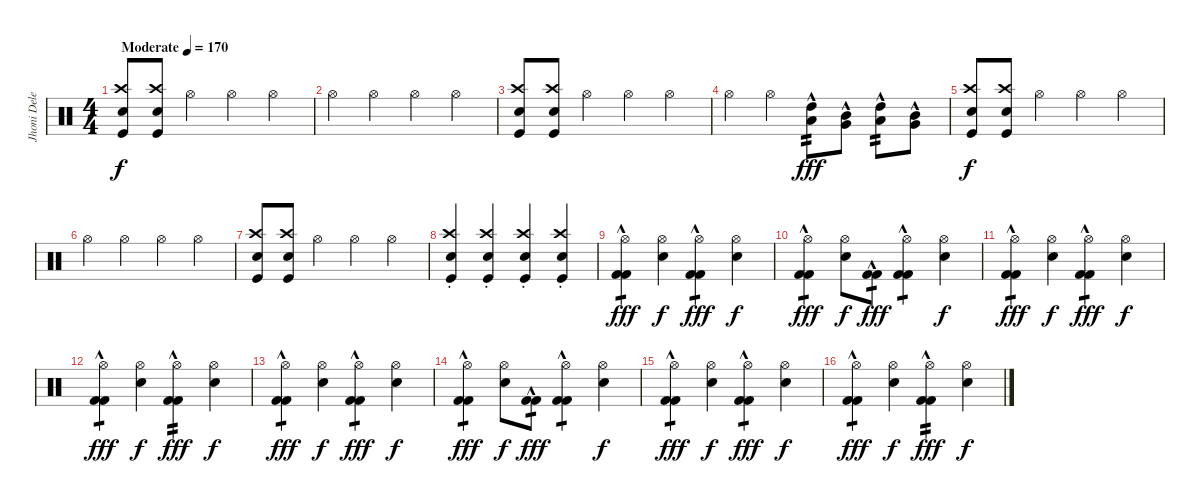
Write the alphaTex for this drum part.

\track ("Jhoni Delenger" "Jhoni Dele") {instrument percussion}
\staff {score}
\articulation defaults
\ts (4 4)
\tempo (170 "Moderate")
\clef neutral
\ks c
("Snare (hit) 2" "Crash high (hit)" "Kick (hit)").8{dy f} ("Snare (hit) 2" "Crash high (hit)" "Kick (hit)").8 "Hi-Hat (open)".4 "Hi-Hat (open)".4 "Hi-Hat (open)".4 |
"Hi-Hat (open)".4 "Hi-Hat (open)".4 "Hi-Hat (open)".4 "Hi-Hat (open)".4 |
("Snare (hit) 2" "Crash high (hit)" "Kick (hit)").8 ("Snare (hit) 2" "Crash high (hit)" "Kick (hit)").8 "Hi-Hat (open)".4 "Hi-Hat (open)".4 "Hi-Hat (open)".4 |
"Hi-Hat (open)".4 "Hi-Hat (open)".4 ("High Tom (hit)"{hac} "Low Tom (hit)"{hac}).8{tp 2 dy fff} ("Mid Tom (hit)"{hac} "Very Low Tom (hit)"{hac}).8 ("High Tom (hit)"{hac} "Low Tom (hit)"{hac}).8{tp 2} ("Mid Tom (hit)"{hac} "Very Low Tom (hit)"{hac}).8 |
("Snare (hit) 2" "Crash high (hit)" "Kick (hit)").8{dy f} ("Snare (hit) 2" "Crash high (hit)" "Kick (hit)").8 "Hi-Hat (open)".4 "Hi-Hat (open)".4 "Hi-Hat (open)".4 |
"Hi-Hat (open)".4 "Hi-Hat (open)".4 "Hi-Hat (open)".4 "Hi-Hat (open)".4 |
("Snare (hit) 2" "Crash high (hit)" "Kick (hit)").8 ("Snare (hit) 2" "Crash high (hit)" "Kick (hit)").8 "Hi-Hat (open)".4 "Hi-Hat (open)".4 "Hi-Hat (open)".4 |
("Snare (hit) 2"{st} "Crash high (hit)" "Kick (hit)").4 ("Snare (hit) 2"{st} "Crash high (hit)" "Kick (hit)").4 ("Snare (hit) 2"{st} "Crash high (hit)" "Kick (hit)").4 ("Snare (hit) 2"{st} "Crash high (hit)" "Kick (hit)").4 |
("Hi-Hat (open)" "Kick (hit) 2"{hac} "Kick (hit) 2").4{tp 1 dy fff} ("Hi-Hat (open)" "Snare (hit) 2").4{dy f} ("Hi-Hat (open)" "Kick (hit) 2"{hac} "Kick (hit) 2").4{tp 1 dy fff} ("Hi-Hat (open)" "Snare (hit) 2").4{dy f} |
("Hi-Hat (open)" "Kick (hit) 2"{hac} "Kick (hit) 2").4{tp 1 dy fff} ("Hi-Hat (open)" "Snare (hit) 2").8{dy f} ("Kick (hit) 2"{hac} "Kick (hit) 2").8{tp 1 dy fff} ("Hi-Hat (open)" "Kick (hit) 2"{hac} "Kick (hit) 2").4{tp 1} ("Hi-Hat (open)" "Snare (hit) 2").4{dy f} |
("Hi-Hat (open)" "Kick (hit) 2"{hac} "Kick (hit) 2").4{tp 1 dy fff} ("Hi-Hat (open)" "Snare (hit) 2").4{dy f} ("Hi-Hat (open)" "Kick (hit) 2"{hac} "Kick (hit) 2").4{tp 1 dy fff} ("Hi-Hat (open)" "Snare (hit) 2").4{dy f} |
("Hi-Hat (open)" "Kick (hit) 2"{hac} "Kick (hit) 2").4{tp 1 dy fff} ("Hi-Hat (open)" "Snare (hit) 2").4{dy f} ("Hi-Hat (open)" "Kick (hit) 2"{hac} "Kick (hit) 2").4{tp 2 dy fff} ("Hi-Hat (open)" "Snare (hit) 2").4{dy f} |
("Hi-Hat (open)" "Kick (hit) 2"{hac} "Kick (hit) 2").4{tp 1 dy fff} ("Hi-Hat (open)" "Snare (hit) 2").4{dy f} ("Hi-Hat (open)" "Kick (hit) 2"{hac} "Kick (hit) 2").4{tp 1 dy fff} ("Hi-Hat (open)" "Snare (hit) 2").4{dy f} |
("Hi-Hat (open)" "Kick (hit) 2"{hac} "Kick (hit) 2").4{tp 1 dy fff} ("Hi-Hat (open)" "Snare (hit) 2").8{dy f} ("Kick (hit) 2"{hac} "Kick (hit) 2").8{tp 1 dy fff} ("Hi-Hat (open)" "Kick (hit) 2"{hac} "Kick (hit) 2").4{tp 1} ("Hi-Hat (open)" "Snare (hit) 2").4{dy f} |
("Hi-Hat (open)" "Kick (hit) 2"{hac} "Kick (hit) 2").4{tp 1 dy fff} ("Hi-Hat (open)" "Snare (hit) 2").4{dy f} ("Hi-Hat (open)" "Kick (hit) 2"{hac} "Kick (hit) 2").4{tp 1 dy fff} ("Hi-Hat (open)" "Snare (hit) 2").4{dy f} |
("Hi-Hat (open)" "Kick (hit) 2"{hac} "Kick (hit) 2").4{tp 1 dy fff} ("Hi-Hat (open)" "Snare (hit) 2").4{dy f} ("Hi-Hat (open)" "Kick (hit) 2"{hac} "Kick (hit) 2").4{tp 2 dy fff} ("Hi-Hat (open)" "Snare (hit) 2").4{dy f}
